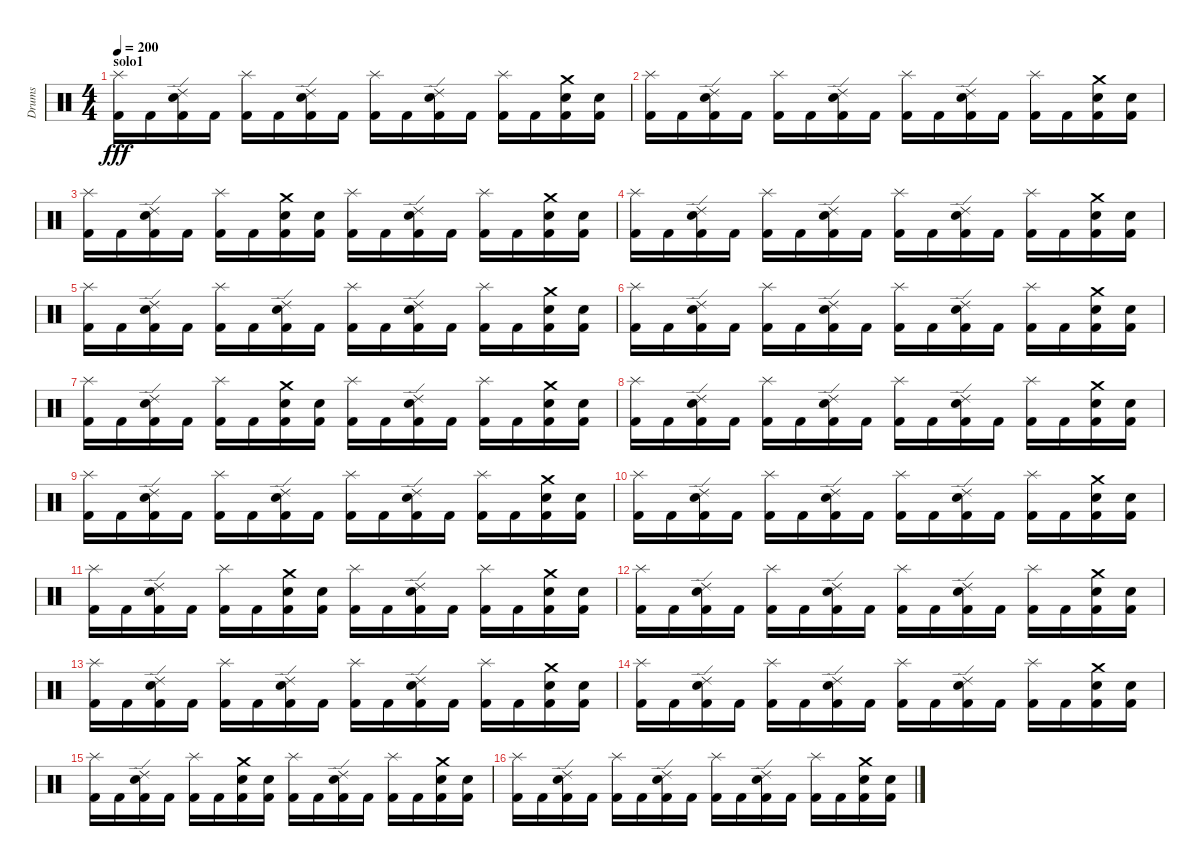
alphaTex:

\track ("Drums" "Drums") {instrument percussion}
\staff {score}
\articulation defaults
\ts (4 4)
\section ("" "solo1")
\tempo 200
\clef neutral
\ks c
("Kick (hit) 2" "Splash (hit)").16{dy fff} "Kick (hit) 2".16 ("Kick (hit) 2" "Electric Snare (hit)" "Ride (edge) 2").16 "Kick (hit) 2".16 ("Kick (hit) 2" "Splash (hit)").16 "Kick (hit) 2".16 ("Kick (hit) 2" "Electric Snare (hit)" "Ride (edge) 2").16 "Kick (hit) 2".16 ("Kick (hit) 2" "Splash (hit)").16 "Kick (hit) 2".16 ("Kick (hit) 2" "Electric Snare (hit)" "Ride (edge) 2").16 "Kick (hit) 2".16 ("Kick (hit) 2" "Splash (hit)").16 "Kick (hit) 2".16 ("Kick (hit) 2" "Electric Snare (hit)" "Crash medium (hit)").16 ("Kick (hit) 2" "Electric Snare (hit)").16 |
("Kick (hit) 2" "Splash (hit)").16 "Kick (hit) 2".16 ("Kick (hit) 2" "Electric Snare (hit)" "Ride (edge) 2").16 "Kick (hit) 2".16 ("Kick (hit) 2" "Splash (hit)").16 "Kick (hit) 2".16 ("Kick (hit) 2" "Electric Snare (hit)" "Ride (edge) 2").16 "Kick (hit) 2".16 ("Kick (hit) 2" "Splash (hit)").16 "Kick (hit) 2".16 ("Kick (hit) 2" "Electric Snare (hit)" "Ride (edge) 2").16 "Kick (hit) 2".16 ("Kick (hit) 2" "Splash (hit)").16 "Kick (hit) 2".16 ("Kick (hit) 2" "Electric Snare (hit)" "Crash medium (hit)").16 ("Kick (hit) 2" "Electric Snare (hit)").16 |
("Kick (hit) 2" "Splash (hit)").16 "Kick (hit) 2".16 ("Kick (hit) 2" "Electric Snare (hit)" "Ride (edge) 2").16 "Kick (hit) 2".16 ("Kick (hit) 2" "Splash (hit)").16 "Kick (hit) 2".16 ("Kick (hit) 2" "Electric Snare (hit)" "Crash medium (hit)").16 ("Kick (hit) 2" "Electric Snare (hit)").16 ("Kick (hit) 2" "Splash (hit)").16 "Kick (hit) 2".16 ("Kick (hit) 2" "Electric Snare (hit)" "Ride (edge) 2").16 "Kick (hit) 2".16 ("Kick (hit) 2" "Splash (hit)").16 "Kick (hit) 2".16 ("Kick (hit) 2" "Electric Snare (hit)" "Crash medium (hit)").16 ("Kick (hit) 2" "Electric Snare (hit)").16 |
("Kick (hit) 2" "Splash (hit)").16 "Kick (hit) 2".16 ("Kick (hit) 2" "Electric Snare (hit)" "Ride (edge) 2").16 "Kick (hit) 2".16 ("Kick (hit) 2" "Splash (hit)").16 "Kick (hit) 2".16 ("Kick (hit) 2" "Electric Snare (hit)" "Ride (edge) 2").16 "Kick (hit) 2".16 ("Kick (hit) 2" "Splash (hit)").16 "Kick (hit) 2".16 ("Kick (hit) 2" "Electric Snare (hit)" "Ride (edge) 2").16 "Kick (hit) 2".16 ("Kick (hit) 2" "Splash (hit)").16 "Kick (hit) 2".16 ("Kick (hit) 2" "Electric Snare (hit)" "Crash medium (hit)").16 ("Kick (hit) 2" "Electric Snare (hit)").16 |
("Kick (hit) 2" "Splash (hit)").16 "Kick (hit) 2".16 ("Kick (hit) 2" "Electric Snare (hit)" "Ride (edge) 2").16 "Kick (hit) 2".16 ("Kick (hit) 2" "Splash (hit)").16 "Kick (hit) 2".16 ("Kick (hit) 2" "Electric Snare (hit)" "Ride (edge) 2").16 "Kick (hit) 2".16 ("Kick (hit) 2" "Splash (hit)").16 "Kick (hit) 2".16 ("Kick (hit) 2" "Electric Snare (hit)" "Ride (edge) 2").16 "Kick (hit) 2".16 ("Kick (hit) 2" "Splash (hit)").16 "Kick (hit) 2".16 ("Kick (hit) 2" "Electric Snare (hit)" "Crash medium (hit)").16 ("Kick (hit) 2" "Electric Snare (hit)").16 |
("Kick (hit) 2" "Splash (hit)").16 "Kick (hit) 2".16 ("Kick (hit) 2" "Electric Snare (hit)" "Ride (edge) 2").16 "Kick (hit) 2".16 ("Kick (hit) 2" "Splash (hit)").16 "Kick (hit) 2".16 ("Kick (hit) 2" "Electric Snare (hit)" "Ride (edge) 2").16 "Kick (hit) 2".16 ("Kick (hit) 2" "Splash (hit)").16 "Kick (hit) 2".16 ("Kick (hit) 2" "Electric Snare (hit)" "Ride (edge) 2").16 "Kick (hit) 2".16 ("Kick (hit) 2" "Splash (hit)").16 "Kick (hit) 2".16 ("Kick (hit) 2" "Electric Snare (hit)" "Crash medium (hit)").16 ("Kick (hit) 2" "Electric Snare (hit)").16 |
("Kick (hit) 2" "Splash (hit)").16 "Kick (hit) 2".16 ("Kick (hit) 2" "Electric Snare (hit)" "Ride (edge) 2").16 "Kick (hit) 2".16 ("Kick (hit) 2" "Splash (hit)").16 "Kick (hit) 2".16 ("Kick (hit) 2" "Electric Snare (hit)" "Crash medium (hit)").16 ("Kick (hit) 2" "Electric Snare (hit)").16 ("Kick (hit) 2" "Splash (hit)").16 "Kick (hit) 2".16 ("Kick (hit) 2" "Electric Snare (hit)" "Ride (edge) 2").16 "Kick (hit) 2".16 ("Kick (hit) 2" "Splash (hit)").16 "Kick (hit) 2".16 ("Kick (hit) 2" "Electric Snare (hit)" "Crash medium (hit)").16 ("Kick (hit) 2" "Electric Snare (hit)").16 |
("Kick (hit) 2" "Splash (hit)").16 "Kick (hit) 2".16 ("Kick (hit) 2" "Electric Snare (hit)" "Ride (edge) 2").16 "Kick (hit) 2".16 ("Kick (hit) 2" "Splash (hit)").16 "Kick (hit) 2".16 ("Kick (hit) 2" "Electric Snare (hit)" "Ride (edge) 2").16 "Kick (hit) 2".16 ("Kick (hit) 2" "Splash (hit)").16 "Kick (hit) 2".16 ("Kick (hit) 2" "Electric Snare (hit)" "Ride (edge) 2").16 "Kick (hit) 2".16 ("Kick (hit) 2" "Splash (hit)").16 "Kick (hit) 2".16 ("Kick (hit) 2" "Electric Snare (hit)" "Crash medium (hit)").16 ("Kick (hit) 2" "Electric Snare (hit)").16 |
("Kick (hit) 2" "Splash (hit)").16 "Kick (hit) 2".16 ("Kick (hit) 2" "Electric Snare (hit)" "Ride (edge) 2").16 "Kick (hit) 2".16 ("Kick (hit) 2" "Splash (hit)").16 "Kick (hit) 2".16 ("Kick (hit) 2" "Electric Snare (hit)" "Ride (edge) 2").16 "Kick (hit) 2".16 ("Kick (hit) 2" "Splash (hit)").16 "Kick (hit) 2".16 ("Kick (hit) 2" "Electric Snare (hit)" "Ride (edge) 2").16 "Kick (hit) 2".16 ("Kick (hit) 2" "Splash (hit)").16 "Kick (hit) 2".16 ("Kick (hit) 2" "Electric Snare (hit)" "Crash medium (hit)").16 ("Kick (hit) 2" "Electric Snare (hit)").16 |
("Kick (hit) 2" "Splash (hit)").16 "Kick (hit) 2".16 ("Kick (hit) 2" "Electric Snare (hit)" "Ride (edge) 2").16 "Kick (hit) 2".16 ("Kick (hit) 2" "Splash (hit)").16 "Kick (hit) 2".16 ("Kick (hit) 2" "Electric Snare (hit)" "Ride (edge) 2").16 "Kick (hit) 2".16 ("Kick (hit) 2" "Splash (hit)").16 "Kick (hit) 2".16 ("Kick (hit) 2" "Electric Snare (hit)" "Ride (edge) 2").16 "Kick (hit) 2".16 ("Kick (hit) 2" "Splash (hit)").16 "Kick (hit) 2".16 ("Kick (hit) 2" "Electric Snare (hit)" "Crash medium (hit)").16 ("Kick (hit) 2" "Electric Snare (hit)").16 |
("Kick (hit) 2" "Splash (hit)").16 "Kick (hit) 2".16 ("Kick (hit) 2" "Electric Snare (hit)" "Ride (edge) 2").16 "Kick (hit) 2".16 ("Kick (hit) 2" "Splash (hit)").16 "Kick (hit) 2".16 ("Kick (hit) 2" "Electric Snare (hit)" "Crash medium (hit)").16 ("Kick (hit) 2" "Electric Snare (hit)").16 ("Kick (hit) 2" "Splash (hit)").16 "Kick (hit) 2".16 ("Kick (hit) 2" "Electric Snare (hit)" "Ride (edge) 2").16 "Kick (hit) 2".16 ("Kick (hit) 2" "Splash (hit)").16 "Kick (hit) 2".16 ("Kick (hit) 2" "Electric Snare (hit)" "Crash medium (hit)").16 ("Kick (hit) 2" "Electric Snare (hit)").16 |
("Kick (hit) 2" "Splash (hit)").16 "Kick (hit) 2".16 ("Kick (hit) 2" "Electric Snare (hit)" "Ride (edge) 2").16 "Kick (hit) 2".16 ("Kick (hit) 2" "Splash (hit)").16 "Kick (hit) 2".16 ("Kick (hit) 2" "Electric Snare (hit)" "Ride (edge) 2").16 "Kick (hit) 2".16 ("Kick (hit) 2" "Splash (hit)").16 "Kick (hit) 2".16 ("Kick (hit) 2" "Electric Snare (hit)" "Ride (edge) 2").16 "Kick (hit) 2".16 ("Kick (hit) 2" "Splash (hit)").16 "Kick (hit) 2".16 ("Kick (hit) 2" "Electric Snare (hit)" "Crash medium (hit)").16 ("Kick (hit) 2" "Electric Snare (hit)").16 |
("Kick (hit) 2" "Splash (hit)").16 "Kick (hit) 2".16 ("Kick (hit) 2" "Electric Snare (hit)" "Ride (edge) 2").16 "Kick (hit) 2".16 ("Kick (hit) 2" "Splash (hit)").16 "Kick (hit) 2".16 ("Kick (hit) 2" "Electric Snare (hit)" "Ride (edge) 2").16 "Kick (hit) 2".16 ("Kick (hit) 2" "Splash (hit)").16 "Kick (hit) 2".16 ("Kick (hit) 2" "Electric Snare (hit)" "Ride (edge) 2").16 "Kick (hit) 2".16 ("Kick (hit) 2" "Splash (hit)").16 "Kick (hit) 2".16 ("Kick (hit) 2" "Electric Snare (hit)" "Crash medium (hit)").16 ("Kick (hit) 2" "Electric Snare (hit)").16 |
("Kick (hit) 2" "Splash (hit)").16 "Kick (hit) 2".16 ("Kick (hit) 2" "Electric Snare (hit)" "Ride (edge) 2").16 "Kick (hit) 2".16 ("Kick (hit) 2" "Splash (hit)").16 "Kick (hit) 2".16 ("Kick (hit) 2" "Electric Snare (hit)" "Ride (edge) 2").16 "Kick (hit) 2".16 ("Kick (hit) 2" "Splash (hit)").16 "Kick (hit) 2".16 ("Kick (hit) 2" "Electric Snare (hit)" "Ride (edge) 2").16 "Kick (hit) 2".16 ("Kick (hit) 2" "Splash (hit)").16 "Kick (hit) 2".16 ("Kick (hit) 2" "Electric Snare (hit)" "Crash medium (hit)").16 ("Kick (hit) 2" "Electric Snare (hit)").16 |
("Kick (hit) 2" "Splash (hit)").16 "Kick (hit) 2".16 ("Kick (hit) 2" "Electric Snare (hit)" "Ride (edge) 2").16 "Kick (hit) 2".16 ("Kick (hit) 2" "Splash (hit)").16 "Kick (hit) 2".16 ("Kick (hit) 2" "Electric Snare (hit)" "Crash medium (hit)").16 ("Kick (hit) 2" "Electric Snare (hit)").16 ("Kick (hit) 2" "Splash (hit)").16 "Kick (hit) 2".16 ("Kick (hit) 2" "Electric Snare (hit)" "Ride (edge) 2").16 "Kick (hit) 2".16 ("Kick (hit) 2" "Splash (hit)").16 "Kick (hit) 2".16 ("Kick (hit) 2" "Electric Snare (hit)" "Crash medium (hit)").16 ("Kick (hit) 2" "Electric Snare (hit)").16 |
("Kick (hit) 2" "Splash (hit)").16 "Kick (hit) 2".16 ("Kick (hit) 2" "Electric Snare (hit)" "Ride (edge) 2").16 "Kick (hit) 2".16 ("Kick (hit) 2" "Splash (hit)").16 "Kick (hit) 2".16 ("Kick (hit) 2" "Electric Snare (hit)" "Ride (edge) 2").16 "Kick (hit) 2".16 ("Kick (hit) 2" "Splash (hit)").16 "Kick (hit) 2".16 ("Kick (hit) 2" "Electric Snare (hit)" "Ride (edge) 2").16 "Kick (hit) 2".16 ("Kick (hit) 2" "Splash (hit)").16 "Kick (hit) 2".16 ("Kick (hit) 2" "Electric Snare (hit)" "Crash medium (hit)").16 ("Kick (hit) 2" "Electric Snare (hit)").16
